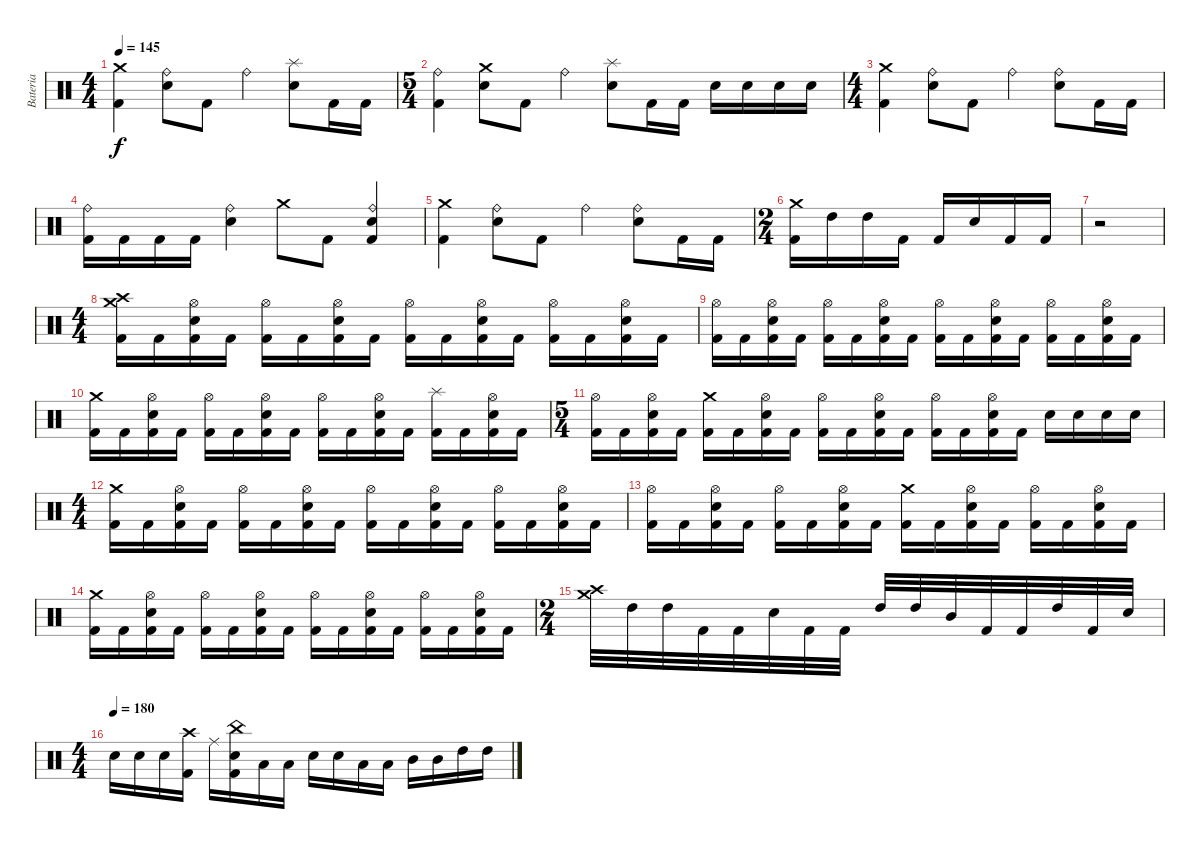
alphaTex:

\track ("Bateria" "Bateria") {instrument percussion}
\staff {score}
\articulation defaults
\ts (4 4)
\tempo 145
\clef neutral
\ks c
("Crash medium (hit)" "Kick (hit) 2").4{dy f} ("Ride (bell)" "Snare (hit) 2").8 "Kick (hit) 2".8 "Ride (bell)".4 ("Splash (hit)" "Snare (hit) 2").8 "Kick (hit) 2".16 "Kick (hit) 2".16 |
\ts (5 4)
("Ride (bell)" "Kick (hit) 2").4 ("Crash medium (hit)" "Snare (hit) 2").8 "Kick (hit) 2".8 "Ride (bell)".4 ("Splash (hit)" "Snare (hit) 2").8 "Kick (hit) 2".16 "Kick (hit) 2".16 "Snare (hit) 2".16 "Snare (hit) 2".16 "Snare (hit) 2".16 "Snare (hit) 2".16 |
\ts (4 4)
("Crash medium (hit)" "Kick (hit) 2").4 ("Ride (bell)" "Snare (hit) 2").8 "Kick (hit) 2".8 "Ride (bell)".4 ("Ride (bell)" "Snare (hit) 2").8 "Kick (hit) 2".16 "Kick (hit) 2".16 |
("Ride (bell)" "Kick (hit) 2").16 "Kick (hit) 2".16 "Kick (hit) 2".16 "Kick (hit) 2".16 ("Ride (bell)" "Snare (hit) 2").4 "Crash medium (hit)".8 "Kick (hit) 2".8 ("Ride (bell)" "Snare (hit) 2" "Kick (hit) 2").4 |
("Crash medium (hit)" "Kick (hit) 2").4 ("Ride (bell)" "Snare (hit) 2").8 "Kick (hit) 2".8 "Ride (bell)".4 ("Ride (bell)" "Snare (hit) 2").8 "Kick (hit) 2".16 "Kick (hit) 2".16 |
\ts (2 4)
("Crash medium (hit)" "Kick (hit) 2").16 "High Tom (hit)".16 "High Tom (hit)".16 "Kick (hit) 2".16 "Kick (hit) 2".16 "Snare (hit) 2".16 "Kick (hit) 2".16 "Kick (hit) 2".16 |
r.2 |
\ts (4 4)
("Crash high (hit)" "Crash medium (hit)" "Kick (hit) 2").16 "Kick (hit) 2".16 ("Hi-Hat (open)" "Snare (hit) 2" "Kick (hit) 2").16 "Kick (hit) 2".16 ("Hi-Hat (open)" "Kick (hit) 2").16 "Kick (hit) 2".16 ("Hi-Hat (open)" "Snare (hit) 2" "Kick (hit) 2").16 "Kick (hit) 2".16 ("Hi-Hat (open)" "Kick (hit) 2").16 "Kick (hit) 2".16 ("Hi-Hat (open)" "Snare (hit) 2" "Kick (hit) 2").16 "Kick (hit) 2".16 ("Hi-Hat (open)" "Kick (hit) 2").16 "Kick (hit) 2".16 ("Hi-Hat (open)" "Snare (hit) 2" "Kick (hit) 2").16 "Kick (hit) 2".16 |
("Hi-Hat (open)" "Kick (hit) 2").16 "Kick (hit) 2".16 ("Hi-Hat (open)" "Snare (hit) 2" "Kick (hit) 2").16 "Kick (hit) 2".16 ("Hi-Hat (open)" "Kick (hit) 2").16 "Kick (hit) 2".16 ("Hi-Hat (open)" "Snare (hit) 2" "Kick (hit) 2").16 "Kick (hit) 2".16 ("Hi-Hat (open)" "Kick (hit) 2").16 "Kick (hit) 2".16 ("Hi-Hat (open)" "Snare (hit) 2" "Kick (hit) 2").16 "Kick (hit) 2".16 ("Hi-Hat (open)" "Kick (hit) 2").16 "Kick (hit) 2".16 ("Hi-Hat (open)" "Snare (hit) 2" "Kick (hit) 2").16 "Kick (hit) 2".16 |
("Crash medium (hit)" "Kick (hit) 2").16 "Kick (hit) 2".16 ("Hi-Hat (open)" "Snare (hit) 2" "Kick (hit) 2").16 "Kick (hit) 2".16 ("Hi-Hat (open)" "Kick (hit) 2").16 "Kick (hit) 2".16 ("Hi-Hat (open)" "Snare (hit) 2" "Kick (hit) 2").16 "Kick (hit) 2".16 ("Hi-Hat (open)" "Kick (hit) 2").16 "Kick (hit) 2".16 ("Hi-Hat (open)" "Snare (hit) 2" "Kick (hit) 2").16 "Kick (hit) 2".16 ("Splash (hit)" "Kick (hit) 2").16 "Kick (hit) 2".16 ("Hi-Hat (open)" "Snare (hit) 2" "Kick (hit) 2").16 "Kick (hit) 2".16 |
\ts (5 4)
("Hi-Hat (open)" "Kick (hit) 2").16 "Kick (hit) 2".16 ("Hi-Hat (open)" "Snare (hit) 2" "Kick (hit) 2").16 "Kick (hit) 2".16 ("Crash medium (hit)" "Kick (hit) 2").16 "Kick (hit) 2".16 ("Hi-Hat (open)" "Snare (hit) 2" "Kick (hit) 2").16 "Kick (hit) 2".16 ("Hi-Hat (open)" "Kick (hit) 2").16 "Kick (hit) 2".16 ("Hi-Hat (open)" "Snare (hit) 2" "Kick (hit) 2").16 "Kick (hit) 2".16 ("Hi-Hat (open)" "Kick (hit) 2").16 "Kick (hit) 2".16 ("Hi-Hat (open)" "Snare (hit) 2" "Kick (hit) 2").16 "Kick (hit) 2".16 "Snare (hit) 2".16 "Snare (hit) 2".16 "Snare (hit) 2".16 "Snare (hit) 2".16 |
\ts (4 4)
("Crash medium (hit)" "Kick (hit) 2").16 "Kick (hit) 2".16 ("Hi-Hat (open)" "Snare (hit) 2" "Kick (hit) 2").16 "Kick (hit) 2".16 ("Hi-Hat (open)" "Kick (hit) 2").16 "Kick (hit) 2".16 ("Hi-Hat (open)" "Snare (hit) 2" "Kick (hit) 2").16 "Kick (hit) 2".16 ("Hi-Hat (open)" "Kick (hit) 2").16 "Kick (hit) 2".16 ("Hi-Hat (open)" "Snare (hit) 2" "Kick (hit) 2").16 "Kick (hit) 2".16 ("Hi-Hat (open)" "Kick (hit) 2").16 "Kick (hit) 2".16 ("Hi-Hat (open)" "Snare (hit) 2" "Kick (hit) 2").16 "Kick (hit) 2".16 |
("Hi-Hat (open)" "Kick (hit) 2").16 "Kick (hit) 2".16 ("Hi-Hat (open)" "Snare (hit) 2" "Kick (hit) 2").16 "Kick (hit) 2".16 ("Hi-Hat (open)" "Kick (hit) 2").16 "Kick (hit) 2".16 ("Hi-Hat (open)" "Snare (hit) 2" "Kick (hit) 2").16 "Kick (hit) 2".16 ("Crash medium (hit)" "Kick (hit) 2").16 "Kick (hit) 2".16 ("Hi-Hat (open)" "Snare (hit) 2" "Kick (hit) 2").16 "Kick (hit) 2".16 ("Hi-Hat (open)" "Kick (hit) 2").16 "Kick (hit) 2".16 ("Hi-Hat (open)" "Snare (hit) 2" "Kick (hit) 2").16 "Kick (hit) 2".16 |
("Crash medium (hit)" "Kick (hit) 2").16 "Kick (hit) 2".16 ("Hi-Hat (open)" "Snare (hit) 2" "Kick (hit) 2").16 "Kick (hit) 2".16 ("Hi-Hat (open)" "Kick (hit) 2").16 "Kick (hit) 2".16 ("Hi-Hat (open)" "Snare (hit) 2" "Kick (hit) 2").16 "Kick (hit) 2".16 ("Hi-Hat (open)" "Kick (hit) 2").16 "Kick (hit) 2".16 ("Hi-Hat (open)" "Snare (hit) 2" "Kick (hit) 2").16 "Kick (hit) 2".16 ("Hi-Hat (open)" "Kick (hit) 2").16 "Kick (hit) 2".16 ("Hi-Hat (open)" "Snare (hit) 2" "Kick (hit) 2").16 "Kick (hit) 2".16 |
\ts (2 4)
("Crash high (hit)" "Crash medium (hit)").32 "High Tom (hit)".32 "High Tom (hit)".32 "Kick (hit) 2".32 "Kick (hit) 2".32 "Snare (hit) 2".32 "Kick (hit) 2".32 "Kick (hit) 2".32 "High Tom (hit)".32 "High Tom (hit)".32 "Mid Tom (hit)".32 "Kick (hit) 2".32 "Kick (hit) 2".32 "High Tom (hit)".32 "Kick (hit) 2".32 "Snare (hit) 2".32 |
\ts (4 4)
\tempo (180)
"Snare (hit) 2".16 "Snare (hit) 2".16 "Snare (hit) 2".16 ("Crash high (hit)" "Kick (hit) 2").16 "Ride (middle)".16 ("Snare (hit) 2" "China (hit)" "Kick (hit) 2").16 "Low Tom (hit)".16 "Low Tom (hit)".16 "Snare (hit) 2".16 "Snare (hit) 2".16 "Low Tom (hit)".16 "Low Tom (hit)".16 "Mid Tom (hit)".16 "Mid Tom (hit)".16 "High Tom (hit)".16 "High Tom (hit)".16
